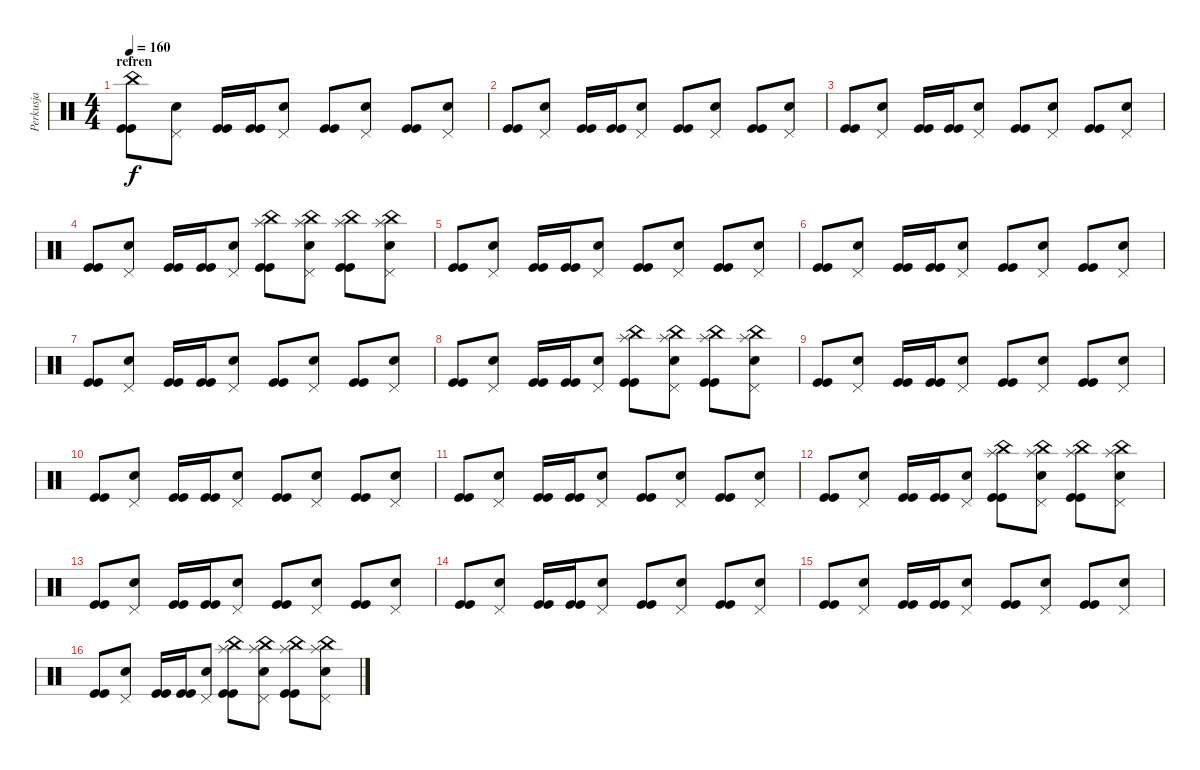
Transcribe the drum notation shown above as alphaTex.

\track ("Perkusja" "Perkusja") {instrument percussion}
\staff {score}
\articulation defaults
\ts (4 4)
\section ("" "refren")
\tempo 160
\clef neutral
\ks c
("China (hit)" "Kick (hit)" "Kick (hit)").8{dy f} ("Pedal Hi-Hat (hit)" "Snare (hit) 2").8 ("Kick (hit)" "Kick (hit)").16 ("Kick (hit)" "Kick (hit)").16 ("Pedal Hi-Hat (hit)" "Snare (hit) 2").8 ("Kick (hit)" "Kick (hit)").8 ("Pedal Hi-Hat (hit)" "Snare (hit) 2").8 ("Kick (hit)" "Kick (hit)").8 ("Pedal Hi-Hat (hit)" "Snare (hit) 2").8 |
("Kick (hit)" "Kick (hit)").8 ("Pedal Hi-Hat (hit)" "Snare (hit) 2").8 ("Kick (hit)" "Kick (hit)").16 ("Kick (hit)" "Kick (hit)").16 ("Pedal Hi-Hat (hit)" "Snare (hit) 2").8 ("Kick (hit)" "Kick (hit)").8 ("Pedal Hi-Hat (hit)" "Snare (hit) 2").8 ("Kick (hit)" "Kick (hit)").8 ("Pedal Hi-Hat (hit)" "Snare (hit) 2").8 |
("Kick (hit)" "Kick (hit)").8 ("Pedal Hi-Hat (hit)" "Snare (hit) 2").8 ("Kick (hit)" "Kick (hit)").16 ("Kick (hit)" "Kick (hit)").16 ("Pedal Hi-Hat (hit)" "Snare (hit) 2").8 ("Kick (hit)" "Kick (hit)").8 ("Pedal Hi-Hat (hit)" "Snare (hit) 2").8 ("Kick (hit)" "Kick (hit)").8 ("Pedal Hi-Hat (hit)" "Snare (hit) 2").8 |
("Kick (hit)" "Kick (hit)").8 ("Pedal Hi-Hat (hit)" "Snare (hit) 2").8 ("Kick (hit)" "Kick (hit)").16 ("Kick (hit)" "Kick (hit)").16 ("Pedal Hi-Hat (hit)" "Snare (hit) 2").8 ("China (hit)" "Splash (hit)" "Kick (hit)" "Kick (hit)").8 ("China (hit)" "Splash (hit)" "Pedal Hi-Hat (hit)" "Snare (hit) 2").8 ("China (hit)" "Splash (hit)" "Kick (hit)" "Kick (hit)").8 ("China (hit)" "Splash (hit)" "Pedal Hi-Hat (hit)" "Snare (hit) 2").8 |
("Kick (hit)" "Kick (hit)").8 ("Pedal Hi-Hat (hit)" "Snare (hit) 2").8 ("Kick (hit)" "Kick (hit)").16 ("Kick (hit)" "Kick (hit)").16 ("Pedal Hi-Hat (hit)" "Snare (hit) 2").8 ("Kick (hit)" "Kick (hit)").8 ("Pedal Hi-Hat (hit)" "Snare (hit) 2").8 ("Kick (hit)" "Kick (hit)").8 ("Pedal Hi-Hat (hit)" "Snare (hit) 2").8 |
("Kick (hit)" "Kick (hit)").8 ("Pedal Hi-Hat (hit)" "Snare (hit) 2").8 ("Kick (hit)" "Kick (hit)").16 ("Kick (hit)" "Kick (hit)").16 ("Pedal Hi-Hat (hit)" "Snare (hit) 2").8 ("Kick (hit)" "Kick (hit)").8 ("Pedal Hi-Hat (hit)" "Snare (hit) 2").8 ("Kick (hit)" "Kick (hit)").8 ("Pedal Hi-Hat (hit)" "Snare (hit) 2").8 |
("Kick (hit)" "Kick (hit)").8 ("Pedal Hi-Hat (hit)" "Snare (hit) 2").8 ("Kick (hit)" "Kick (hit)").16 ("Kick (hit)" "Kick (hit)").16 ("Pedal Hi-Hat (hit)" "Snare (hit) 2").8 ("Kick (hit)" "Kick (hit)").8 ("Pedal Hi-Hat (hit)" "Snare (hit) 2").8 ("Kick (hit)" "Kick (hit)").8 ("Pedal Hi-Hat (hit)" "Snare (hit) 2").8 |
("Kick (hit)" "Kick (hit)").8 ("Pedal Hi-Hat (hit)" "Snare (hit) 2").8 ("Kick (hit)" "Kick (hit)").16 ("Kick (hit)" "Kick (hit)").16 ("Pedal Hi-Hat (hit)" "Snare (hit) 2").8 ("China (hit)" "Splash (hit)" "Kick (hit)" "Kick (hit)").8 ("China (hit)" "Splash (hit)" "Pedal Hi-Hat (hit)" "Snare (hit) 2").8 ("China (hit)" "Splash (hit)" "Kick (hit)" "Kick (hit)").8 ("China (hit)" "Splash (hit)" "Pedal Hi-Hat (hit)" "Snare (hit) 2").8 |
("Kick (hit)" "Kick (hit)").8 ("Pedal Hi-Hat (hit)" "Snare (hit) 2").8 ("Kick (hit)" "Kick (hit)").16 ("Kick (hit)" "Kick (hit)").16 ("Pedal Hi-Hat (hit)" "Snare (hit) 2").8 ("Kick (hit)" "Kick (hit)").8 ("Pedal Hi-Hat (hit)" "Snare (hit) 2").8 ("Kick (hit)" "Kick (hit)").8 ("Pedal Hi-Hat (hit)" "Snare (hit) 2").8 |
("Kick (hit)" "Kick (hit)").8 ("Pedal Hi-Hat (hit)" "Snare (hit) 2").8 ("Kick (hit)" "Kick (hit)").16 ("Kick (hit)" "Kick (hit)").16 ("Pedal Hi-Hat (hit)" "Snare (hit) 2").8 ("Kick (hit)" "Kick (hit)").8 ("Pedal Hi-Hat (hit)" "Snare (hit) 2").8 ("Kick (hit)" "Kick (hit)").8 ("Pedal Hi-Hat (hit)" "Snare (hit) 2").8 |
("Kick (hit)" "Kick (hit)").8 ("Pedal Hi-Hat (hit)" "Snare (hit) 2").8 ("Kick (hit)" "Kick (hit)").16 ("Kick (hit)" "Kick (hit)").16 ("Pedal Hi-Hat (hit)" "Snare (hit) 2").8 ("Kick (hit)" "Kick (hit)").8 ("Pedal Hi-Hat (hit)" "Snare (hit) 2").8 ("Kick (hit)" "Kick (hit)").8 ("Pedal Hi-Hat (hit)" "Snare (hit) 2").8 |
("Kick (hit)" "Kick (hit)").8 ("Pedal Hi-Hat (hit)" "Snare (hit) 2").8 ("Kick (hit)" "Kick (hit)").16 ("Kick (hit)" "Kick (hit)").16 ("Pedal Hi-Hat (hit)" "Snare (hit) 2").8 ("China (hit)" "Splash (hit)" "Kick (hit)" "Kick (hit)").8 ("China (hit)" "Splash (hit)" "Pedal Hi-Hat (hit)" "Snare (hit) 2").8 ("China (hit)" "Splash (hit)" "Kick (hit)" "Kick (hit)").8 ("China (hit)" "Splash (hit)" "Pedal Hi-Hat (hit)" "Snare (hit) 2").8 |
("Kick (hit)" "Kick (hit)").8 ("Pedal Hi-Hat (hit)" "Snare (hit) 2").8 ("Kick (hit)" "Kick (hit)").16 ("Kick (hit)" "Kick (hit)").16 ("Pedal Hi-Hat (hit)" "Snare (hit) 2").8 ("Kick (hit)" "Kick (hit)").8 ("Pedal Hi-Hat (hit)" "Snare (hit) 2").8 ("Kick (hit)" "Kick (hit)").8 ("Pedal Hi-Hat (hit)" "Snare (hit) 2").8 |
("Kick (hit)" "Kick (hit)").8 ("Pedal Hi-Hat (hit)" "Snare (hit) 2").8 ("Kick (hit)" "Kick (hit)").16 ("Kick (hit)" "Kick (hit)").16 ("Pedal Hi-Hat (hit)" "Snare (hit) 2").8 ("Kick (hit)" "Kick (hit)").8 ("Pedal Hi-Hat (hit)" "Snare (hit) 2").8 ("Kick (hit)" "Kick (hit)").8 ("Pedal Hi-Hat (hit)" "Snare (hit) 2").8 |
("Kick (hit)" "Kick (hit)").8 ("Pedal Hi-Hat (hit)" "Snare (hit) 2").8 ("Kick (hit)" "Kick (hit)").16 ("Kick (hit)" "Kick (hit)").16 ("Pedal Hi-Hat (hit)" "Snare (hit) 2").8 ("Kick (hit)" "Kick (hit)").8 ("Pedal Hi-Hat (hit)" "Snare (hit) 2").8 ("Kick (hit)" "Kick (hit)").8 ("Pedal Hi-Hat (hit)" "Snare (hit) 2").8 |
("Kick (hit)" "Kick (hit)").8 ("Pedal Hi-Hat (hit)" "Snare (hit) 2").8 ("Kick (hit)" "Kick (hit)").16 ("Kick (hit)" "Kick (hit)").16 ("Pedal Hi-Hat (hit)" "Snare (hit) 2").8 ("China (hit)" "Splash (hit)" "Kick (hit)" "Kick (hit)").8 ("China (hit)" "Splash (hit)" "Pedal Hi-Hat (hit)" "Snare (hit) 2").8 ("China (hit)" "Splash (hit)" "Kick (hit)" "Kick (hit)").8 ("China (hit)" "Splash (hit)" "Pedal Hi-Hat (hit)" "Snare (hit) 2").8
